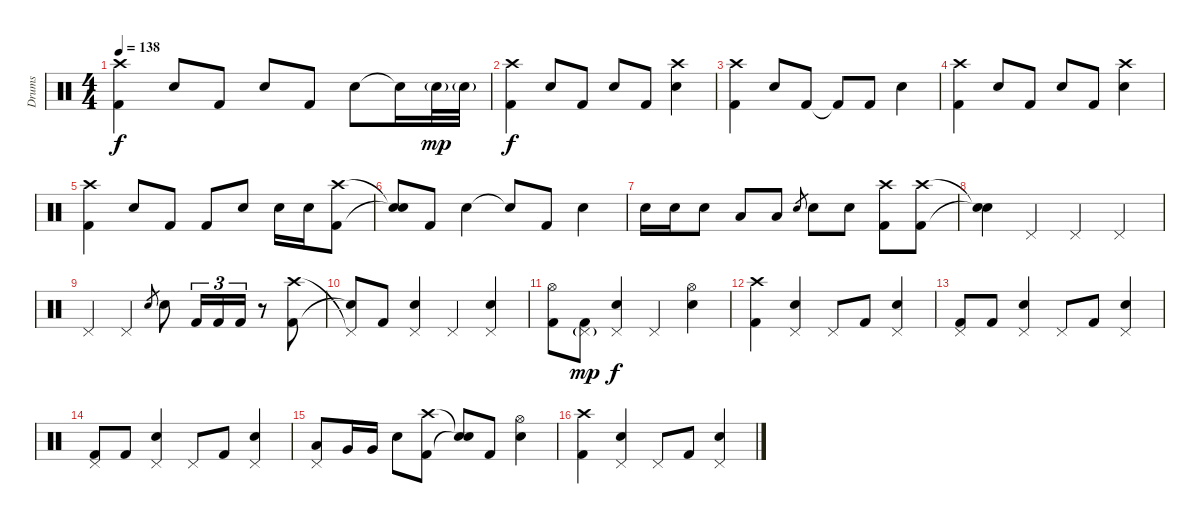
\track ("Drums" "Drums") {instrument percussion}
\staff {score}
\articulation defaults
\ts (4 4)
\tempo 138
\clef neutral
\ks c
("Crash high (hit)" "Kick (hit) 2").4{dy f} "Electric Snare (hit)".8 "Kick (hit) 2".8 "Electric Snare (hit)".8 "Kick (hit) 2".8 "Electric Snare (hit)".8 "Snare (hit)"{t}.16 "Electric Snare (hit)"{g}.32{dy mp} "Electric Snare (hit)"{g}.32 |
("Crash high (hit)" "Kick (hit) 2").4{dy f} "Electric Snare (hit)".8 "Kick (hit) 2".8 "Electric Snare (hit)".8 "Kick (hit) 2".8 ("Crash high (hit)" "Electric Snare (hit)").4 |
("Crash high (hit)" "Kick (hit) 2").4 "Electric Snare (hit)".8 "Kick (hit) 2".8 "Kick (hit) 2"{t}.8 "Kick (hit) 2".8 "Electric Snare (hit)".4 |
("Crash high (hit)" "Kick (hit) 2").4 "Electric Snare (hit)".8 "Kick (hit) 2".8 "Electric Snare (hit)".8 "Kick (hit) 2".8 ("Crash high (hit)" "Electric Snare (hit)").4 |
("Crash high (hit)" "Kick (hit) 2").4 "Electric Snare (hit)".8 "Kick (hit) 2".8 "Kick (hit) 2".8 "Electric Snare (hit)".8 "Electric Snare (hit)".16 "Electric Snare (hit)".16 ("Crash high (hit)" "Kick (hit) 2").8 |
("Snare (hit)"{t} "Snare (hit)"{t}).8 "Kick (hit) 2".8 "Electric Snare (hit)".4 "Snare (hit)"{t}.8 "Kick (hit) 2".8 "Electric Snare (hit)".4 |
"Electric Snare (hit)".16 "Electric Snare (hit)".16 "Electric Snare (hit)".8 "Low Tom (hit)".8 "Low Tom (hit)".8 "Electric Snare (hit)".8{gr} "Electric Snare (hit)".8 "Electric Snare (hit)".8 ("Crash high (hit)" "Kick (hit) 2").8 ("Crash high (hit)" "Kick (hit) 2").8 |
("Snare (hit)"{t} "Snare (hit)"{t}).4 "Pedal Hi-Hat (hit)".4 "Pedal Hi-Hat (hit)".4 "Pedal Hi-Hat (hit)".4 |
"Pedal Hi-Hat (hit)".4 "Pedal Hi-Hat (hit)".4 "Electric Snare (hit)".8{gr} "Electric Snare (hit)".8 "Kick (hit) 2".16{tu (3 2)} "Kick (hit) 2".16{tu (3 2)} "Kick (hit) 2".16{tu (3 2)} r.8 ("Crash high (hit)" "Kick (hit) 2").8 |
("Pedal Hi-Hat (hit)"{t} "Snare (hit)"{t}).8 "Kick (hit) 2".8 ("Pedal Hi-Hat (hit)" "Electric Snare (hit)").4 "Pedal Hi-Hat (hit)".4 ("Pedal Hi-Hat (hit)" "Electric Snare (hit)").4 |
("Hi-Hat (open)" "Kick (hit) 2").8 ("Pedal Hi-Hat (hit)"{g} "Kick (hit) 2").8{dy mp} ("Pedal Hi-Hat (hit)" "Electric Snare (hit)").4{dy f} "Pedal Hi-Hat (hit)".4 ("Hi-Hat (open)" "Electric Snare (hit)").4 |
("Crash high (hit)" "Kick (hit) 2").4 ("Pedal Hi-Hat (hit)" "Electric Snare (hit)").4 "Pedal Hi-Hat (hit)".8 "Kick (hit) 2".8 ("Pedal Hi-Hat (hit)" "Electric Snare (hit)").4 |
("Pedal Hi-Hat (hit)" "Kick (hit) 2").8 "Kick (hit) 2".8 ("Pedal Hi-Hat (hit)" "Electric Snare (hit)").4 "Pedal Hi-Hat (hit)".8 "Kick (hit) 2".8 ("Pedal Hi-Hat (hit)" "Electric Snare (hit)").4 |
("Pedal Hi-Hat (hit)" "Kick (hit) 2").8 "Kick (hit) 2".8 ("Pedal Hi-Hat (hit)" "Electric Snare (hit)").4 "Pedal Hi-Hat (hit)".8 "Kick (hit) 2".8 ("Pedal Hi-Hat (hit)" "Electric Snare (hit)").4 |
("Pedal Hi-Hat (hit)" "Low Tom (hit)").8 "Very Low Tom (hit)".16 "Very Low Tom (hit)".16 "Electric Snare (hit)".8 ("Crash high (hit)" "Kick (hit) 2").8 ("Snare (hit)"{t} "Snare (hit)"{t}).8 "Kick (hit) 2".8 ("Hi-Hat (open)" "Electric Snare (hit)").4 |
("Crash high (hit)" "Kick (hit) 2").4 ("Pedal Hi-Hat (hit)" "Electric Snare (hit)").4 "Pedal Hi-Hat (hit)".8 "Kick (hit) 2".8 ("Pedal Hi-Hat (hit)" "Electric Snare (hit)").4
